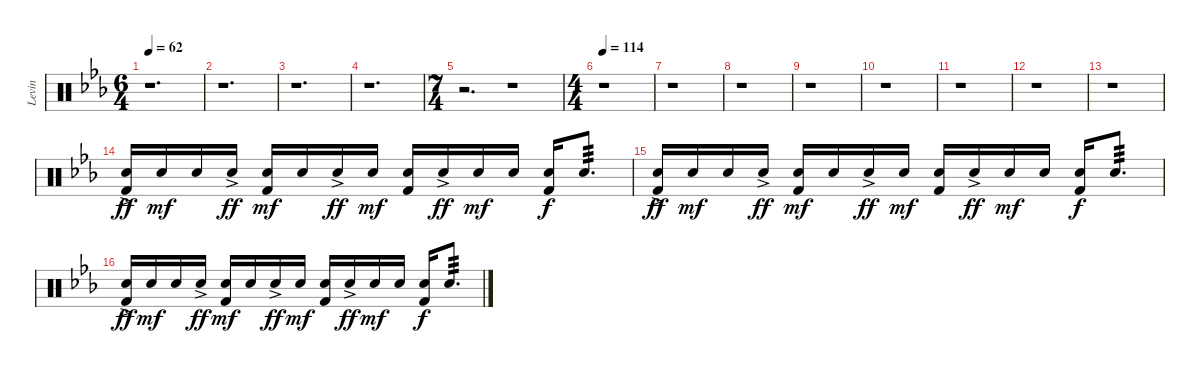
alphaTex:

\track ("Levin" "Levin") {instrument percussion}
\staff {score}
\articulation defaults
\ts (6 4)
\tempo 62
\clef neutral
\ks eb
r.1{d dy ff} |
r.1{d} |
r.1{d} |
r.1{d} |
\ts (7 4)
r.2{d} r.1 |
\ts (4 4)
\tempo 114
r.1 |
r.1 |
r.1 |
r.1 |
r.1 |
r.1 |
r.1 |
r.1 |
("Electric Snare (hit)"{ac} "Kick (hit) 2").16 "Electric Snare (hit)".16{dy mf} "Electric Snare (hit)".16 "Electric Snare (hit)"{ac}.16{dy ff} ("Electric Snare (hit)" "Kick (hit) 2").16{dy mf} "Electric Snare (hit)".16 "Electric Snare (hit)"{ac}.16{dy ff} "Electric Snare (hit)".16{dy mf} ("Electric Snare (hit)" "Kick (hit) 2").16 "Electric Snare (hit)"{ac}.16{dy ff} "Electric Snare (hit)".16{dy mf} "Electric Snare (hit)".16 ("Electric Snare (hit)" "Kick (hit) 2").16{dy f} "Electric Snare (hit)".8{d tp 3} |
("Electric Snare (hit)"{ac} "Kick (hit) 2").16{dy ff} "Electric Snare (hit)".16{dy mf} "Electric Snare (hit)".16 "Electric Snare (hit)"{ac}.16{dy ff} ("Electric Snare (hit)" "Kick (hit) 2").16{dy mf} "Electric Snare (hit)".16 "Electric Snare (hit)"{ac}.16{dy ff} "Electric Snare (hit)".16{dy mf} ("Electric Snare (hit)" "Kick (hit) 2").16 "Electric Snare (hit)"{ac}.16{dy ff} "Electric Snare (hit)".16{dy mf} "Electric Snare (hit)".16 ("Electric Snare (hit)" "Kick (hit) 2").16{dy f} "Electric Snare (hit)".8{d tp 3} |
("Electric Snare (hit)"{ac} "Kick (hit) 2").16{dy ff} "Electric Snare (hit)".16{dy mf} "Electric Snare (hit)".16 "Electric Snare (hit)"{ac}.16{dy ff} ("Electric Snare (hit)" "Kick (hit) 2").16{dy mf} "Electric Snare (hit)".16 "Electric Snare (hit)"{ac}.16{dy ff} "Electric Snare (hit)".16{dy mf} ("Electric Snare (hit)" "Kick (hit) 2").16 "Electric Snare (hit)"{ac}.16{dy ff} "Electric Snare (hit)".16{dy mf} "Electric Snare (hit)".16 ("Electric Snare (hit)" "Kick (hit) 2").16{dy f} "Electric Snare (hit)".8{d tp 3}
